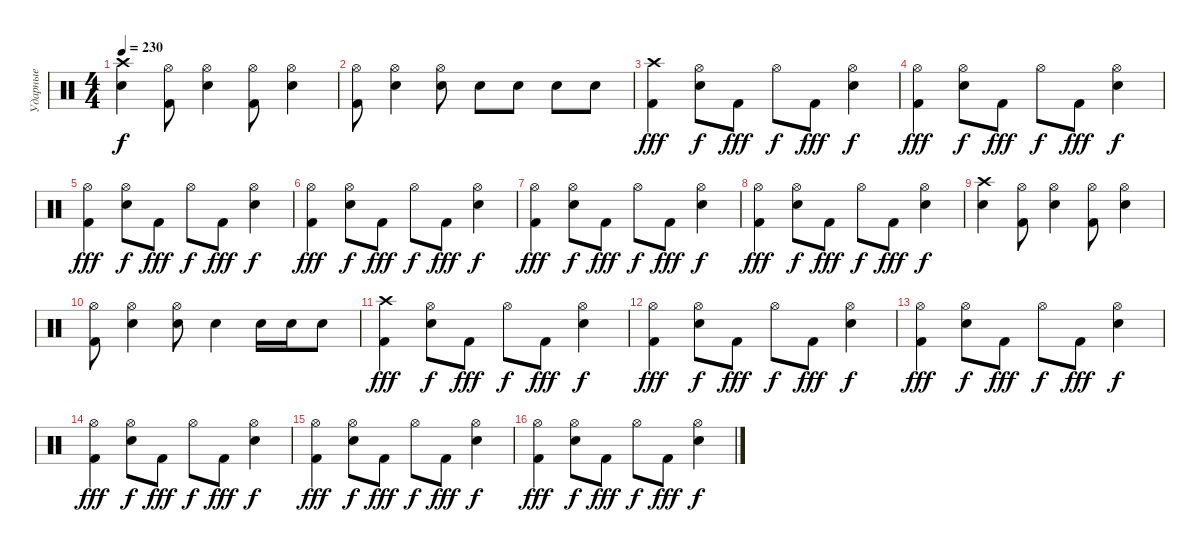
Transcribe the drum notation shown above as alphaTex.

\track ("Ударные" "Ударные") {instrument percussion}
\staff
\articulation defaults
\ts (4 4)
\tempo 230
\clef neutral
\ks c
("Snare (hit) 2" "Crash high (hit)").4{dy f} ("Kick (hit) 2" "Hi-Hat (open)").8 ("Snare (hit) 2" "Hi-Hat (open)").4 ("Kick (hit) 2" "Hi-Hat (open)").8 ("Snare (hit) 2" "Hi-Hat (open)").4 |
("Kick (hit) 2" "Hi-Hat (open)").8 ("Snare (hit) 2" "Hi-Hat (open)").4 ("Snare (hit) 2" "Hi-Hat (open)").8 "Snare (hit) 2".8 "Snare (hit) 2".8 "Snare (hit) 2".8 "Snare (hit) 2".8 |
("Kick (hit) 2" "Crash high (hit)").4{dy fff} ("Snare (hit) 2" "Hi-Hat (open)").8{dy f} "Kick (hit) 2".8{dy fff} "Hi-Hat (open)".8{dy f} "Kick (hit) 2".8{dy fff} ("Snare (hit) 2" "Hi-Hat (open)").4{dy f} |
("Kick (hit) 2" "Hi-Hat (open)").4{dy fff} ("Snare (hit) 2" "Hi-Hat (open)").8{dy f} "Kick (hit) 2".8{dy fff} "Hi-Hat (open)".8{dy f} "Kick (hit) 2".8{dy fff} ("Snare (hit) 2" "Hi-Hat (open)").4{dy f} |
("Kick (hit) 2" "Hi-Hat (open)").4{dy fff} ("Snare (hit) 2" "Hi-Hat (open)").8{dy f} "Kick (hit) 2".8{dy fff} "Hi-Hat (open)".8{dy f} "Kick (hit) 2".8{dy fff} ("Snare (hit) 2" "Hi-Hat (open)").4{dy f} |
("Kick (hit) 2" "Hi-Hat (open)").4{dy fff} ("Snare (hit) 2" "Hi-Hat (open)").8{dy f} "Kick (hit) 2".8{dy fff} "Hi-Hat (open)".8{dy f} "Kick (hit) 2".8{dy fff} ("Snare (hit) 2" "Hi-Hat (open)").4{dy f} |
("Kick (hit) 2" "Hi-Hat (open)").4{dy fff} ("Snare (hit) 2" "Hi-Hat (open)").8{dy f} "Kick (hit) 2".8{dy fff} "Hi-Hat (open)".8{dy f} "Kick (hit) 2".8{dy fff} ("Snare (hit) 2" "Hi-Hat (open)").4{dy f} |
("Kick (hit) 2" "Hi-Hat (open)").4{dy fff} ("Snare (hit) 2" "Hi-Hat (open)").8{dy f} "Kick (hit) 2".8{dy fff} "Hi-Hat (open)".8{dy f} "Kick (hit) 2".8{dy fff} ("Snare (hit) 2" "Hi-Hat (open)").4{dy f} |
("Snare (hit) 2" "Crash high (hit)").4 ("Kick (hit) 2" "Hi-Hat (open)").8 ("Snare (hit) 2" "Hi-Hat (open)").4 ("Kick (hit) 2" "Hi-Hat (open)").8 ("Snare (hit) 2" "Hi-Hat (open)").4 |
("Kick (hit) 2" "Hi-Hat (open)").8 ("Snare (hit) 2" "Hi-Hat (open)").4 ("Snare (hit) 2" "Hi-Hat (open)").8 "Snare (hit) 2".4 "Snare (hit) 2".16 "Snare (hit) 2".16 "Snare (hit) 2".8 |
("Kick (hit) 2" "Crash high (hit)").4{dy fff} ("Snare (hit) 2" "Hi-Hat (open)").8{dy f} "Kick (hit) 2".8{dy fff} "Hi-Hat (open)".8{dy f} "Kick (hit) 2".8{dy fff} ("Snare (hit) 2" "Hi-Hat (open)").4{dy f} |
("Kick (hit) 2" "Hi-Hat (open)").4{dy fff} ("Snare (hit) 2" "Hi-Hat (open)").8{dy f} "Kick (hit) 2".8{dy fff} "Hi-Hat (open)".8{dy f} "Kick (hit) 2".8{dy fff} ("Snare (hit) 2" "Hi-Hat (open)").4{dy f} |
("Kick (hit) 2" "Hi-Hat (open)").4{dy fff} ("Snare (hit) 2" "Hi-Hat (open)").8{dy f} "Kick (hit) 2".8{dy fff} "Hi-Hat (open)".8{dy f} "Kick (hit) 2".8{dy fff} ("Snare (hit) 2" "Hi-Hat (open)").4{dy f} |
("Kick (hit) 2" "Hi-Hat (open)").4{dy fff} ("Snare (hit) 2" "Hi-Hat (open)").8{dy f} "Kick (hit) 2".8{dy fff} "Hi-Hat (open)".8{dy f} "Kick (hit) 2".8{dy fff} ("Snare (hit) 2" "Hi-Hat (open)").4{dy f} |
("Kick (hit) 2" "Hi-Hat (open)").4{dy fff} ("Snare (hit) 2" "Hi-Hat (open)").8{dy f} "Kick (hit) 2".8{dy fff} "Hi-Hat (open)".8{dy f} "Kick (hit) 2".8{dy fff} ("Snare (hit) 2" "Hi-Hat (open)").4{dy f} |
("Kick (hit) 2" "Hi-Hat (open)").4{dy fff} ("Snare (hit) 2" "Hi-Hat (open)").8{dy f} "Kick (hit) 2".8{dy fff} "Hi-Hat (open)".8{dy f} "Kick (hit) 2".8{dy fff} ("Snare (hit) 2" "Hi-Hat (open)").4{dy f}
